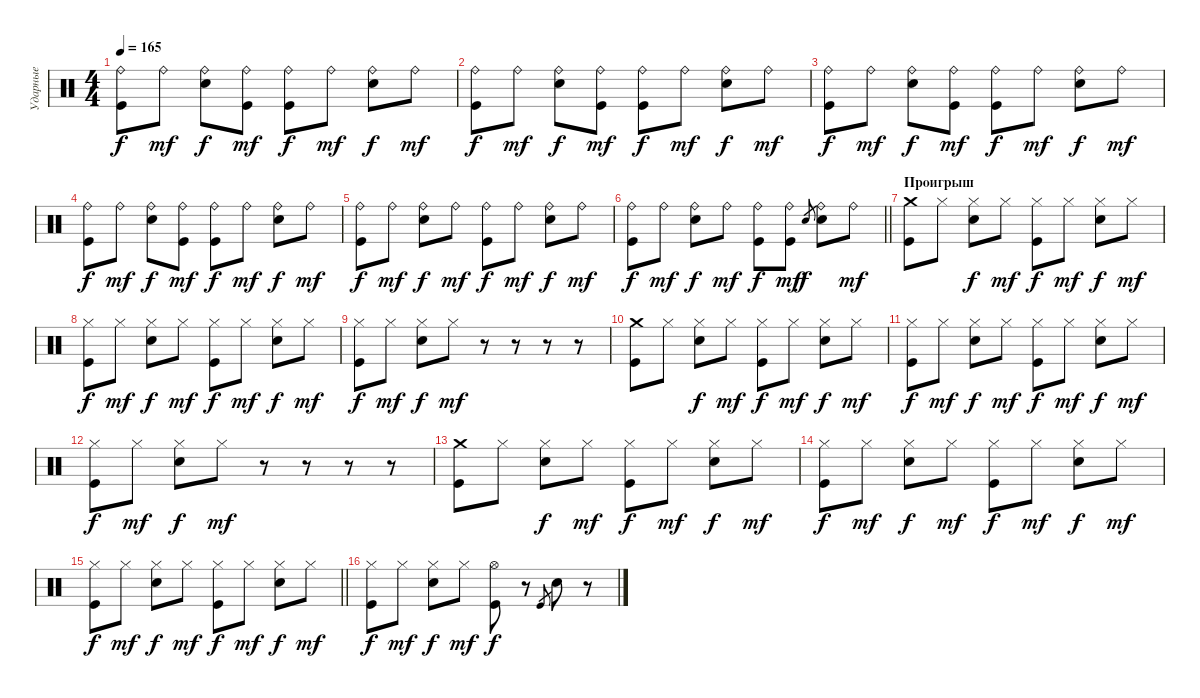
\track ("Ударные" "Ударные") {instrument percussion}
\staff {score}
\articulation defaults
\ts (4 4)
\tempo 165
\clef neutral
\ks c
("Ride (bell)" "Kick (hit)").8{dy f} "Ride (bell)".8{dy mf} ("Ride (bell)" "Electric Snare (hit)").8{dy f} ("Ride (bell)" "Kick (hit)").8{dy mf} ("Ride (bell)" "Kick (hit)").8{dy f} "Ride (bell)".8{dy mf} ("Ride (bell)" "Electric Snare (hit)").8{dy f} "Ride (bell)".8{dy mf} |
("Ride (bell)" "Kick (hit)").8{dy f} "Ride (bell)".8{dy mf} ("Ride (bell)" "Electric Snare (hit)").8{dy f} ("Ride (bell)" "Kick (hit)").8{dy mf} ("Ride (bell)" "Kick (hit)").8{dy f} "Ride (bell)".8{dy mf} ("Ride (bell)" "Electric Snare (hit)").8{dy f} "Ride (bell)".8{dy mf} |
("Ride (bell)" "Kick (hit)").8{dy f} "Ride (bell)".8{dy mf} ("Ride (bell)" "Electric Snare (hit)").8{dy f} ("Ride (bell)" "Kick (hit)").8{dy mf} ("Ride (bell)" "Kick (hit)").8{dy f} "Ride (bell)".8{dy mf} ("Ride (bell)" "Electric Snare (hit)").8{dy f} "Ride (bell)".8{dy mf} |
("Ride (bell)" "Kick (hit)").8{dy f} "Ride (bell)".8{dy mf} ("Ride (bell)" "Electric Snare (hit)").8{dy f} ("Ride (bell)" "Kick (hit)").8{dy mf} ("Ride (bell)" "Kick (hit)").8{dy f} "Ride (bell)".8{dy mf} ("Ride (bell)" "Electric Snare (hit)").8{dy f} "Ride (bell)".8{dy mf} |
("Ride (bell)" "Kick (hit)").8{dy f} "Ride (bell)".8{dy mf} ("Ride (bell)" "Electric Snare (hit)").8{dy f} "Ride (bell)".8{dy mf} ("Ride (bell)" "Kick (hit)").8{dy f} "Ride (bell)".8{dy mf} ("Ride (bell)" "Electric Snare (hit)").8{dy f} "Ride (bell)".8{dy mf} |
\barLineRight lightlight
("Ride (bell)" "Kick (hit)").8{dy f} "Ride (bell)".8{dy mf} ("Ride (bell)" "Electric Snare (hit)").8{dy f} "Ride (bell)".8{dy mf} ("Ride (bell)" "Kick (hit)").8{dy f} ("Ride (bell)" "Kick (hit)").8{dy mf} "Electric Snare (hit)".8{gr dy f} ("Ride (bell)" "Electric Snare (hit)").8 "Ride (bell)".8{dy mf} |
\section ("" "Проигрыш")
("Crash medium (hit)" "Kick (hit)").8 "Hi-Hat (closed)".8 ("Hi-Hat (closed)" "Electric Snare (hit)").8{dy f} "Hi-Hat (closed)".8{dy mf} ("Hi-Hat (closed)" "Kick (hit)").8{dy f} "Hi-Hat (closed)".8{dy mf} ("Hi-Hat (closed)" "Electric Snare (hit)").8{dy f} "Hi-Hat (closed)".8{dy mf} |
("Hi-Hat (closed)" "Kick (hit)").8{dy f} "Hi-Hat (closed)".8{dy mf} ("Hi-Hat (closed)" "Electric Snare (hit)").8{dy f} "Hi-Hat (closed)".8{dy mf} ("Hi-Hat (closed)" "Kick (hit)").8{dy f} "Hi-Hat (closed)".8{dy mf} ("Hi-Hat (closed)" "Electric Snare (hit)").8{dy f} "Hi-Hat (closed)".8{dy mf} |
("Hi-Hat (closed)" "Kick (hit)").8{dy f} "Hi-Hat (closed)".8{dy mf} ("Hi-Hat (closed)" "Electric Snare (hit)").8{dy f} "Hi-Hat (closed)".8{dy mf} r.8 r.8 r.8 r.8 |
("Crash medium (hit)" "Kick (hit)").8 "Hi-Hat (closed)".8 ("Hi-Hat (closed)" "Electric Snare (hit)").8{dy f} "Hi-Hat (closed)".8{dy mf} ("Hi-Hat (closed)" "Kick (hit)").8{dy f} "Hi-Hat (closed)".8{dy mf} ("Hi-Hat (closed)" "Electric Snare (hit)").8{dy f} "Hi-Hat (closed)".8{dy mf} |
("Hi-Hat (closed)" "Kick (hit)").8{dy f} "Hi-Hat (closed)".8{dy mf} ("Hi-Hat (closed)" "Electric Snare (hit)").8{dy f} "Hi-Hat (closed)".8{dy mf} ("Hi-Hat (closed)" "Kick (hit)").8{dy f} "Hi-Hat (closed)".8{dy mf} ("Hi-Hat (closed)" "Electric Snare (hit)").8{dy f} "Hi-Hat (closed)".8{dy mf} |
("Hi-Hat (closed)" "Kick (hit)").8{dy f} "Hi-Hat (closed)".8{dy mf} ("Hi-Hat (closed)" "Electric Snare (hit)").8{dy f} "Hi-Hat (closed)".8{dy mf} r.8 r.8 r.8 r.8 |
("Crash medium (hit)" "Kick (hit)").8 "Hi-Hat (closed)".8 ("Hi-Hat (closed)" "Electric Snare (hit)").8{dy f} "Hi-Hat (closed)".8{dy mf} ("Hi-Hat (closed)" "Kick (hit)").8{dy f} "Hi-Hat (closed)".8{dy mf} ("Hi-Hat (closed)" "Electric Snare (hit)").8{dy f} "Hi-Hat (closed)".8{dy mf} |
("Hi-Hat (closed)" "Kick (hit)").8{dy f} "Hi-Hat (closed)".8{dy mf} ("Hi-Hat (closed)" "Electric Snare (hit)").8{dy f} "Hi-Hat (closed)".8{dy mf} ("Hi-Hat (closed)" "Kick (hit)").8{dy f} "Hi-Hat (closed)".8{dy mf} ("Hi-Hat (closed)" "Electric Snare (hit)").8{dy f} "Hi-Hat (closed)".8{dy mf} |
\barLineRight lightlight
("Hi-Hat (closed)" "Kick (hit)").8{dy f} "Hi-Hat (closed)".8{dy mf} ("Hi-Hat (closed)" "Electric Snare (hit)").8{dy f} "Hi-Hat (closed)".8{dy mf} ("Hi-Hat (closed)" "Kick (hit)").8{dy f} "Hi-Hat (closed)".8{dy mf} ("Hi-Hat (closed)" "Electric Snare (hit)").8{dy f} "Hi-Hat (closed)".8{dy mf} |
("Hi-Hat (closed)" "Kick (hit)").8{dy f} "Hi-Hat (closed)".8{dy mf} ("Hi-Hat (closed)" "Electric Snare (hit)").8{dy f} "Hi-Hat (closed)".8{dy mf} ("Hi-Hat (open)" "Kick (hit)").8{dy f} r.8 "Kick (hit)".8{gr} "Electric Snare (hit)".8 r.8
